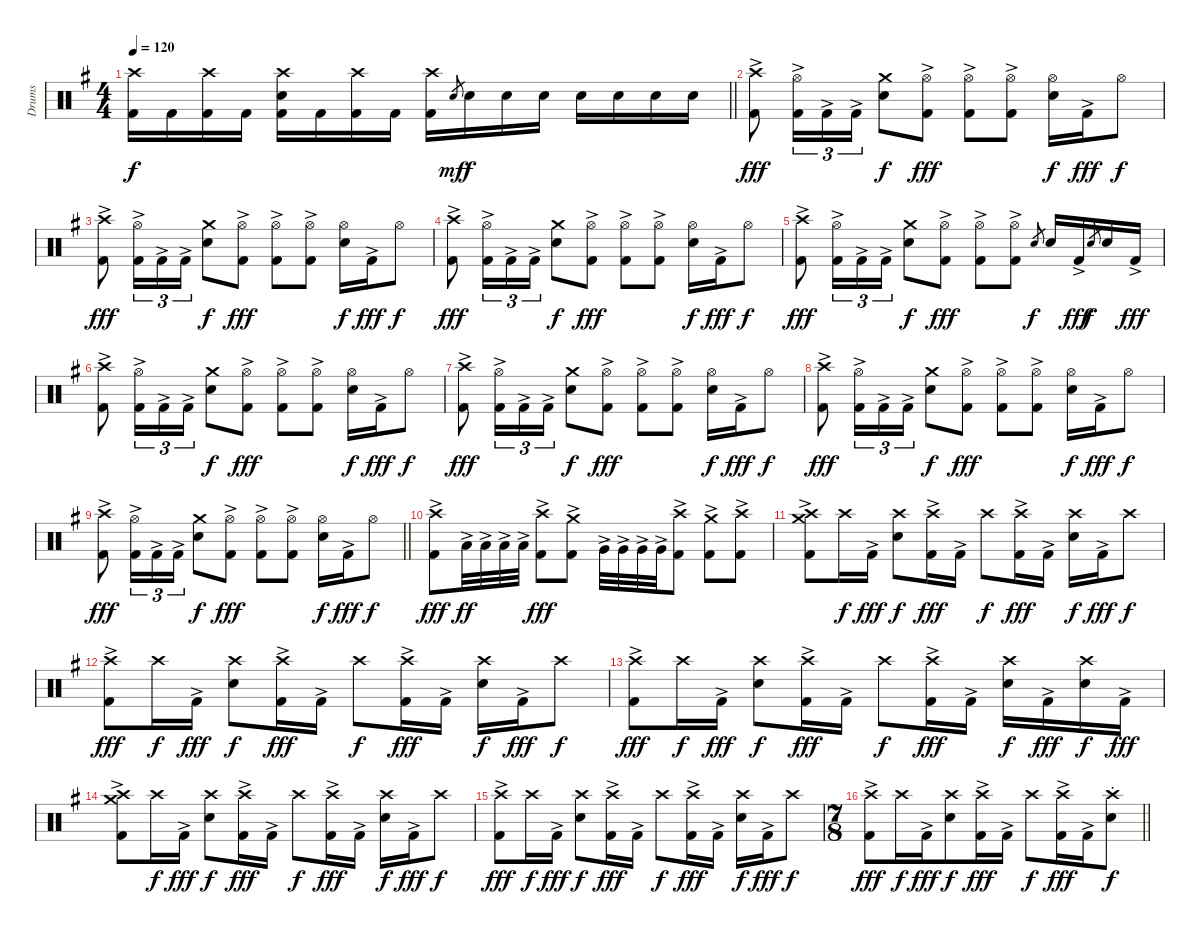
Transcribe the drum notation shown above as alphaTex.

\track ("Drums" "Drums") {instrument percussion}
\staff {score}
\articulation defaults
\ts (4 4)
\tempo 120
\clef neutral
\barLineRight lightlight
\ks eminor
("Crash high (hit)" "Kick (hit) 2").16{dy f} "Kick (hit) 2".16 ("Crash high (hit)" "Kick (hit) 2").16 "Kick (hit) 2".16 ("Crash high (hit)" "Snare (hit) 2" "Kick (hit) 2").16 "Kick (hit) 2".16 ("Crash high (hit)" "Kick (hit) 2").16 "Kick (hit) 2".16 ("Crash high (hit)" "Kick (hit) 2").16 "Snare (hit) 2".8{gr dy mf} "Snare (hit) 2".16{dy f} "Snare (hit) 2".16 "Snare (hit) 2".16 "Snare (hit) 2".16 "Snare (hit) 2".16 "Snare (hit) 2".16 "Snare (hit) 2".16 |
("Crash high (hit)" "Kick (hit) 2"{ac}).8{dy fff} ("Hi-Hat (open)" "Kick (hit) 2"{ac}).16{tu (3 2)} "Kick (hit) 2"{ac}.16{tu (3 2)} "Kick (hit) 2"{ac}.16{tu (3 2)} ("Crash medium (hit)" "Snare (hit) 2").8{dy f} ("Hi-Hat (open)" "Kick (hit) 2"{ac}).8{dy fff} ("Hi-Hat (open)" "Kick (hit) 2"{ac}).8 ("Hi-Hat (open)" "Kick (hit) 2"{ac}).8 ("Hi-Hat (open)" "Snare (hit) 2").16{dy f} "Kick (hit) 2"{ac}.16{dy fff} "Hi-Hat (open)".8{dy f} |
("Crash high (hit)" "Kick (hit) 2"{ac}).8{dy fff} ("Hi-Hat (open)" "Kick (hit) 2"{ac}).16{tu (3 2)} "Kick (hit) 2"{ac}.16{tu (3 2)} "Kick (hit) 2"{ac}.16{tu (3 2)} ("Crash medium (hit)" "Snare (hit) 2").8{dy f} ("Hi-Hat (open)" "Kick (hit) 2"{ac}).8{dy fff} ("Hi-Hat (open)" "Kick (hit) 2"{ac}).8 ("Hi-Hat (open)" "Kick (hit) 2"{ac}).8 ("Hi-Hat (open)" "Snare (hit) 2").16{dy f} "Kick (hit) 2"{ac}.16{dy fff} "Hi-Hat (open)".8{dy f} |
("Crash high (hit)" "Kick (hit) 2"{ac}).8{dy fff} ("Hi-Hat (open)" "Kick (hit) 2"{ac}).16{tu (3 2)} "Kick (hit) 2"{ac}.16{tu (3 2)} "Kick (hit) 2"{ac}.16{tu (3 2)} ("Crash medium (hit)" "Snare (hit) 2").8{dy f} ("Hi-Hat (open)" "Kick (hit) 2"{ac}).8{dy fff} ("Hi-Hat (open)" "Kick (hit) 2"{ac}).8 ("Hi-Hat (open)" "Kick (hit) 2"{ac}).8 ("Hi-Hat (open)" "Snare (hit) 2").16{dy f} "Kick (hit) 2"{ac}.16{dy fff} "Hi-Hat (open)".8{dy f} |
("Crash high (hit)" "Kick (hit) 2"{ac}).8{dy fff} ("Hi-Hat (open)" "Kick (hit) 2"{ac}).16{tu (3 2)} "Kick (hit) 2"{ac}.16{tu (3 2)} "Kick (hit) 2"{ac}.16{tu (3 2)} ("Crash medium (hit)" "Snare (hit) 2").8{dy f} ("Hi-Hat (open)" "Kick (hit) 2"{ac}).8{dy fff} ("Hi-Hat (open)" "Kick (hit) 2"{ac}).8 ("Hi-Hat (open)" "Kick (hit) 2"{ac}).8 "Snare (hit) 2".8{gr dy f} "Snare (hit) 2".16 "Kick (hit) 2"{ac}.16{dy fff} "Snare (hit) 2".8{gr dy f} "Snare (hit) 2".16 "Kick (hit) 2"{ac}.16{dy fff} |
("Crash high (hit)" "Kick (hit) 2"{ac}).8 ("Hi-Hat (open)" "Kick (hit) 2"{ac}).16{tu (3 2)} "Kick (hit) 2"{ac}.16{tu (3 2)} "Kick (hit) 2"{ac}.16{tu (3 2)} ("Crash medium (hit)" "Snare (hit) 2").8{dy f} ("Hi-Hat (open)" "Kick (hit) 2"{ac}).8{dy fff} ("Hi-Hat (open)" "Kick (hit) 2"{ac}).8 ("Hi-Hat (open)" "Kick (hit) 2"{ac}).8 ("Hi-Hat (open)" "Snare (hit) 2").16{dy f} "Kick (hit) 2"{ac}.16{dy fff} "Hi-Hat (open)".8{dy f} |
("Crash high (hit)" "Kick (hit) 2"{ac}).8{dy fff} ("Hi-Hat (open)" "Kick (hit) 2"{ac}).16{tu (3 2)} "Kick (hit) 2"{ac}.16{tu (3 2)} "Kick (hit) 2"{ac}.16{tu (3 2)} ("Crash medium (hit)" "Snare (hit) 2").8{dy f} ("Hi-Hat (open)" "Kick (hit) 2"{ac}).8{dy fff} ("Hi-Hat (open)" "Kick (hit) 2"{ac}).8 ("Hi-Hat (open)" "Kick (hit) 2"{ac}).8 ("Hi-Hat (open)" "Snare (hit) 2").16{dy f} "Kick (hit) 2"{ac}.16{dy fff} "Hi-Hat (open)".8{dy f} |
("Crash high (hit)" "Kick (hit) 2"{ac}).8{dy fff} ("Hi-Hat (open)" "Kick (hit) 2"{ac}).16{tu (3 2)} "Kick (hit) 2"{ac}.16{tu (3 2)} "Kick (hit) 2"{ac}.16{tu (3 2)} ("Crash medium (hit)" "Snare (hit) 2").8{dy f} ("Hi-Hat (open)" "Kick (hit) 2"{ac}).8{dy fff} ("Hi-Hat (open)" "Kick (hit) 2"{ac}).8 ("Hi-Hat (open)" "Kick (hit) 2"{ac}).8 ("Hi-Hat (open)" "Snare (hit) 2").16{dy f} "Kick (hit) 2"{ac}.16{dy fff} "Hi-Hat (open)".8{dy f} |
\barLineRight lightlight
("Crash high (hit)" "Kick (hit) 2"{ac}).8{dy fff} ("Hi-Hat (open)" "Kick (hit) 2"{ac}).16{tu (3 2)} "Kick (hit) 2"{ac}.16{tu (3 2)} "Kick (hit) 2"{ac}.16{tu (3 2)} ("Crash medium (hit)" "Snare (hit) 2").8{dy f} ("Hi-Hat (open)" "Kick (hit) 2"{ac}).8{dy fff} ("Hi-Hat (open)" "Kick (hit) 2"{ac}).8 ("Hi-Hat (open)" "Kick (hit) 2"{ac}).8 ("Hi-Hat (open)" "Snare (hit) 2").16{dy f} "Kick (hit) 2"{ac}.16{dy fff} "Hi-Hat (open)".8{dy f} |
("Crash high (hit)" "Kick (hit) 2"{ac}).8{dy fff} "Low Tom (hit)"{ac}.32{dy ff} "Low Tom (hit)"{ac}.32 "Low Tom (hit)"{ac}.32 "Low Tom (hit)"{ac}.32 ("Crash high (hit)" "Kick (hit) 2"{ac}).8{dy fff} ("Crash medium (hit)" "Kick (hit) 2"{ac}).8 "Very Low Tom (hit)"{ac}.32 "Very Low Tom (hit)"{ac}.32 "Very Low Tom (hit)"{ac}.32 "Very Low Tom (hit)"{ac}.32 ("Crash high (hit)" "Kick (hit) 2"{ac}).8 ("Crash medium (hit)" "Kick (hit) 2"{ac}).8 ("Crash high (hit)" "Kick (hit) 2"{ac}).8 |
("Crash high (hit)" "Crash medium (hit)" "Kick (hit) 2"{ac}).8 "Crash high (hit)".16{dy f} "Kick (hit) 2"{ac}.16{dy fff} ("Crash high (hit)" "Snare (hit) 2").8{dy f} ("Crash high (hit)" "Kick (hit) 2"{ac}).16{dy fff} "Kick (hit) 2"{ac}.16 "Crash high (hit)".8{dy f} ("Crash high (hit)" "Kick (hit) 2"{ac}).16{dy fff} "Kick (hit) 2"{ac}.16 ("Crash high (hit)" "Snare (hit) 2").16{dy f} "Kick (hit) 2"{ac}.16{dy fff} "Crash high (hit)".8{dy f} |
("Crash high (hit)" "Kick (hit) 2"{ac}).8{dy fff} "Crash high (hit)".16{dy f} "Kick (hit) 2"{ac}.16{dy fff} ("Crash high (hit)" "Snare (hit) 2").8{dy f} ("Crash high (hit)" "Kick (hit) 2"{ac}).16{dy fff} "Kick (hit) 2"{ac}.16 "Crash high (hit)".8{dy f} ("Crash high (hit)" "Kick (hit) 2"{ac}).16{dy fff} "Kick (hit) 2"{ac}.16 ("Crash high (hit)" "Snare (hit) 2").16{dy f} "Kick (hit) 2"{ac}.16{dy fff} "Crash high (hit)".8{dy f} |
("Crash high (hit)" "Kick (hit) 2"{ac}).8{dy fff} "Crash high (hit)".16{dy f} "Kick (hit) 2"{ac}.16{dy fff} ("Crash high (hit)" "Snare (hit) 2").8{dy f} ("Crash high (hit)" "Kick (hit) 2"{ac}).16{dy fff} "Kick (hit) 2"{ac}.16 "Crash high (hit)".8{dy f} ("Crash high (hit)" "Kick (hit) 2"{ac}).16{dy fff} "Kick (hit) 2"{ac}.16 ("Crash high (hit)" "Snare (hit) 2").16{dy f} "Kick (hit) 2"{ac}.16{dy fff} ("Crash high (hit)" "Snare (hit) 2").16{dy f} "Kick (hit) 2"{ac}.16{dy fff} |
("Crash high (hit)" "Crash medium (hit)" "Kick (hit) 2"{ac}).8 "Crash high (hit)".16{dy f} "Kick (hit) 2"{ac}.16{dy fff} ("Crash high (hit)" "Snare (hit) 2").8{dy f} ("Crash high (hit)" "Kick (hit) 2"{ac}).16{dy fff} "Kick (hit) 2"{ac}.16 "Crash high (hit)".8{dy f} ("Crash high (hit)" "Kick (hit) 2"{ac}).16{dy fff} "Kick (hit) 2"{ac}.16 ("Crash high (hit)" "Snare (hit) 2").16{dy f} "Kick (hit) 2"{ac}.16{dy fff} "Crash high (hit)".8{dy f} |
("Crash high (hit)" "Kick (hit) 2"{ac}).8{dy fff} "Crash high (hit)".16{dy f} "Kick (hit) 2"{ac}.16{dy fff} ("Crash high (hit)" "Snare (hit) 2").8{dy f} ("Crash high (hit)" "Kick (hit) 2"{ac}).16{dy fff} "Kick (hit) 2"{ac}.16 "Crash high (hit)".8{dy f} ("Crash high (hit)" "Kick (hit) 2"{ac}).16{dy fff} "Kick (hit) 2"{ac}.16 ("Crash high (hit)" "Snare (hit) 2").16{dy f} "Kick (hit) 2"{ac}.16{dy fff} "Crash high (hit)".8{dy f} |
\ts (7 8)
\barLineRight lightlight
("Crash high (hit)" "Kick (hit) 2"{ac}).8{dy fff} "Crash high (hit)".16{dy f} "Kick (hit) 2"{ac}.16{dy fff} ("Crash high (hit)" "Snare (hit) 2").8{dy f} ("Crash high (hit)" "Kick (hit) 2"{ac}).16{dy fff} "Kick (hit) 2"{ac}.16 "Crash high (hit)".8{dy f} ("Crash high (hit)" "Kick (hit) 2"{ac}).16{dy fff} "Kick (hit) 2"{ac}.16 ("Crash high (hit)"{st} "Snare (hit) 2"{st}).8{dy f}
